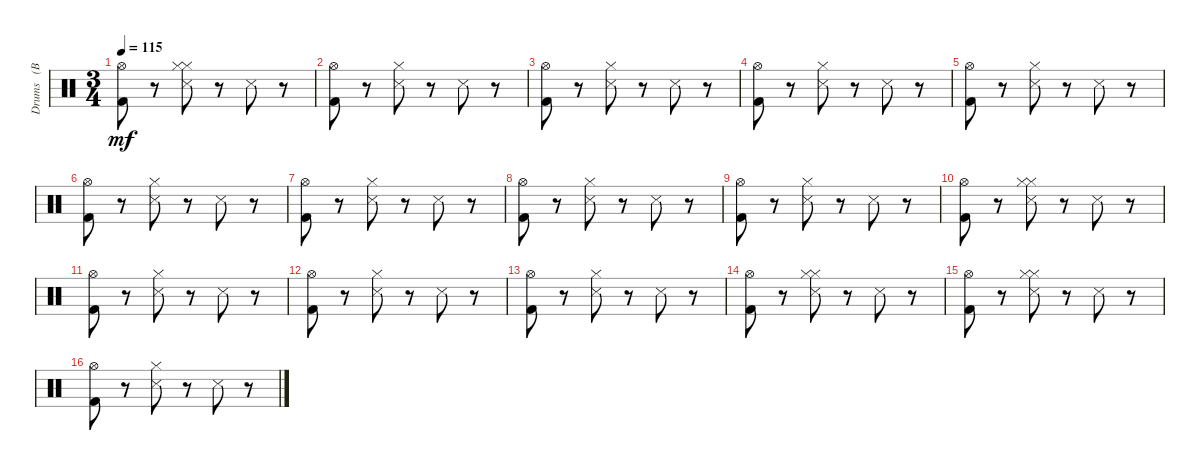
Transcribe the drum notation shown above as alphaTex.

\track ("Drums   (BB)" "Drums   (B") {instrument percussion}
\staff {score}
\articulation defaults
\ts (3 4)
\tempo 115
\clef neutral
\ks c
("Kick (hit) 2" "Hi-Hat (open)").8{dy mf} r.8 ("Hi-Hat (closed)" "Hi-Hat (closed)" "Snare (side stick) 3").8 r.8 "Snare (side stick) 3".8 r.8 |
("Kick (hit) 2" "Hi-Hat (open)").8 r.8 ("Hi-Hat (closed)" "Snare (side stick) 3").8 r.8 "Snare (side stick) 3".8 r.8 |
("Kick (hit) 2" "Hi-Hat (open)").8 r.8 ("Hi-Hat (closed)" "Snare (side stick) 3").8 r.8 "Snare (side stick) 3".8 r.8 |
("Kick (hit) 2" "Hi-Hat (open)").8 r.8 ("Hi-Hat (closed)" "Snare (side stick) 3").8 r.8 "Snare (side stick) 3".8 r.8 |
("Kick (hit) 2" "Hi-Hat (open)").8 r.8 ("Hi-Hat (closed)" "Snare (side stick) 3").8 r.8 "Snare (side stick) 3".8 r.8 |
("Kick (hit) 2" "Hi-Hat (open)").8 r.8 ("Hi-Hat (closed)" "Snare (side stick) 3").8 r.8 "Snare (side stick) 3".8 r.8 |
("Kick (hit) 2" "Hi-Hat (open)").8 r.8 ("Hi-Hat (closed)" "Snare (side stick) 3").8 r.8 "Snare (side stick) 3".8 r.8 |
("Kick (hit) 2" "Hi-Hat (open)").8 r.8 ("Hi-Hat (closed)" "Snare (side stick) 3").8 r.8 "Snare (side stick) 3".8 r.8 |
("Kick (hit) 2" "Hi-Hat (open)").8 r.8 ("Hi-Hat (closed)" "Snare (side stick) 3").8 r.8 "Snare (side stick) 3".8 r.8 |
("Kick (hit) 2" "Hi-Hat (open)").8 r.8 ("Hi-Hat (closed)" "Hi-Hat (closed)" "Snare (side stick) 3").8 r.8 "Snare (side stick) 3".8 r.8 |
("Kick (hit) 2" "Hi-Hat (open)").8 r.8 ("Hi-Hat (closed)" "Snare (side stick) 3").8 r.8 "Snare (side stick) 3".8 r.8 |
("Kick (hit) 2" "Hi-Hat (open)").8 r.8 ("Hi-Hat (closed)" "Snare (side stick) 3").8 r.8 "Snare (side stick) 3".8 r.8 |
("Kick (hit) 2" "Hi-Hat (open)").8 r.8 ("Hi-Hat (closed)" "Snare (side stick) 3").8 r.8 "Snare (side stick) 3".8 r.8 |
("Kick (hit) 2" "Hi-Hat (open)").8 r.8 ("Hi-Hat (closed)" "Hi-Hat (closed)" "Snare (side stick) 3").8 r.8 "Snare (side stick) 3".8 r.8 |
("Kick (hit) 2" "Hi-Hat (open)").8 r.8 ("Hi-Hat (closed)" "Hi-Hat (closed)" "Snare (side stick) 3").8 r.8 "Snare (side stick) 3".8 r.8 |
("Kick (hit) 2" "Hi-Hat (open)").8 r.8 ("Hi-Hat (closed)" "Snare (side stick) 3").8 r.8 "Snare (side stick) 3".8 r.8
